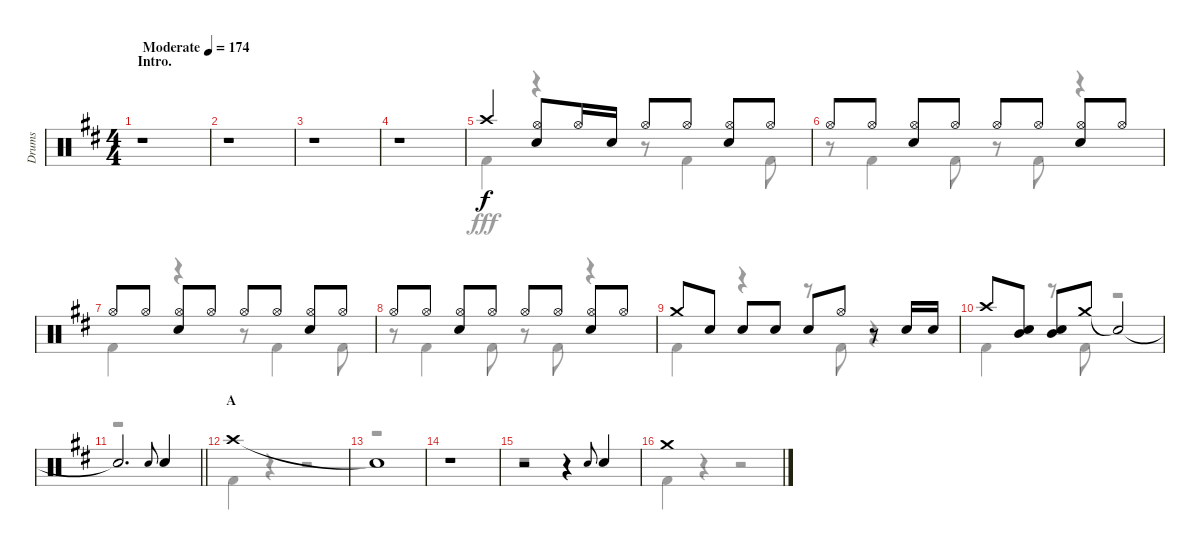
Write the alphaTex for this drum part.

\track ("Drums" "Drums") {instrument percussion}
\staff {score}
\articulation defaults
\voice
\ts (4 4)
\section ("" "Intro.")
\tempo (174 "Moderate")
\clef neutral
\ks bminor
r.1{dy f} |
r.1 |
r.1 |
r.1 |
"Crash high (hit)".4 ("Hi-Hat (open)" "Snare (hit) 2").8 "Hi-Hat (open)".16 "Snare (hit) 2".16 "Hi-Hat (open)".8 "Hi-Hat (open)".8 ("Hi-Hat (open)" "Snare (hit) 2").8 "Hi-Hat (open)".8 |
"Hi-Hat (open)".8 "Hi-Hat (open)".8 ("Hi-Hat (open)" "Snare (hit) 2").8 "Hi-Hat (open)".8 "Hi-Hat (open)".8 "Hi-Hat (open)".8 ("Hi-Hat (open)" "Snare (hit) 2").8 "Hi-Hat (open)".8 |
"Hi-Hat (open)".8 "Hi-Hat (open)".8 ("Hi-Hat (open)" "Snare (hit) 2").8 "Hi-Hat (open)".8 "Hi-Hat (open)".8 "Hi-Hat (open)".8 ("Hi-Hat (open)" "Snare (hit) 2").8 "Hi-Hat (open)".8 |
"Hi-Hat (open)".8 "Hi-Hat (open)".8 ("Hi-Hat (open)" "Snare (hit) 2").8 "Hi-Hat (open)".8 "Hi-Hat (open)".8 "Hi-Hat (open)".8 ("Hi-Hat (open)" "Snare (hit) 2").8 "Hi-Hat (open)".8 |
"Crash medium (hit)".8 "Snare (hit) 2".8 "Snare (hit) 2".8 "Snare (hit) 2".8 "Snare (hit) 2".8 "Hi-Hat (open)".8 r.8 "Snare (hit) 2".16 "Snare (hit) 2".16 |
"Crash high (hit)".8 ("Mid Tom (hit)" "Snare (hit) 2").8 ("Mid Tom (hit)" "Snare (hit) 2").8 "Crash medium (hit)".8 "Snare (hit)"{t}.2 |
\barLineRight lightlight "Snare (hit)"{t}.2{d} "Snare (hit) 2".8{gr onbeat} "Snare (hit) 2".4
|
\section ("" "A")
"Crash high (hit)".1 |
"Snare (hit)"{t}.1 |
r.1 |
r.2 r.4 "Snare (hit) 2".8{gr onbeat} "Snare (hit) 2".4 |
"Crash medium (hit)".1
\voice
\clef neutral
\ottava regular
\simile none
\ks bminor
r.1{dy fff} |
r.1 |
r.1 |
r.1 |
"Kick (hit) 2".4 r.4 r.8 "Kick (hit) 2".4 "Kick (hit) 2".8 |
r.8 "Kick (hit) 2".4 "Kick (hit) 2".8 r.8 "Kick (hit) 2".8 r.4 |
"Kick (hit) 2".4 r.4 r.8 "Kick (hit) 2".4 "Kick (hit) 2".8 |
r.8 "Kick (hit) 2".4 "Kick (hit) 2".8 r.8 "Kick (hit) 2".8 r.4 |
"Kick (hit) 2".4 r.4 r.8 "Kick (hit) 2".8 r.4 |
"Kick (hit) 2".4 r.8 "Kick (hit) 2".8 r.2 |
\barLineRight lightlight
r.1 |
"Kick (hit) 2".4 r.4 r.2 |
r.1 |
r.1 |
r.1 |
"Kick (hit) 2".4 r.4 r.2
